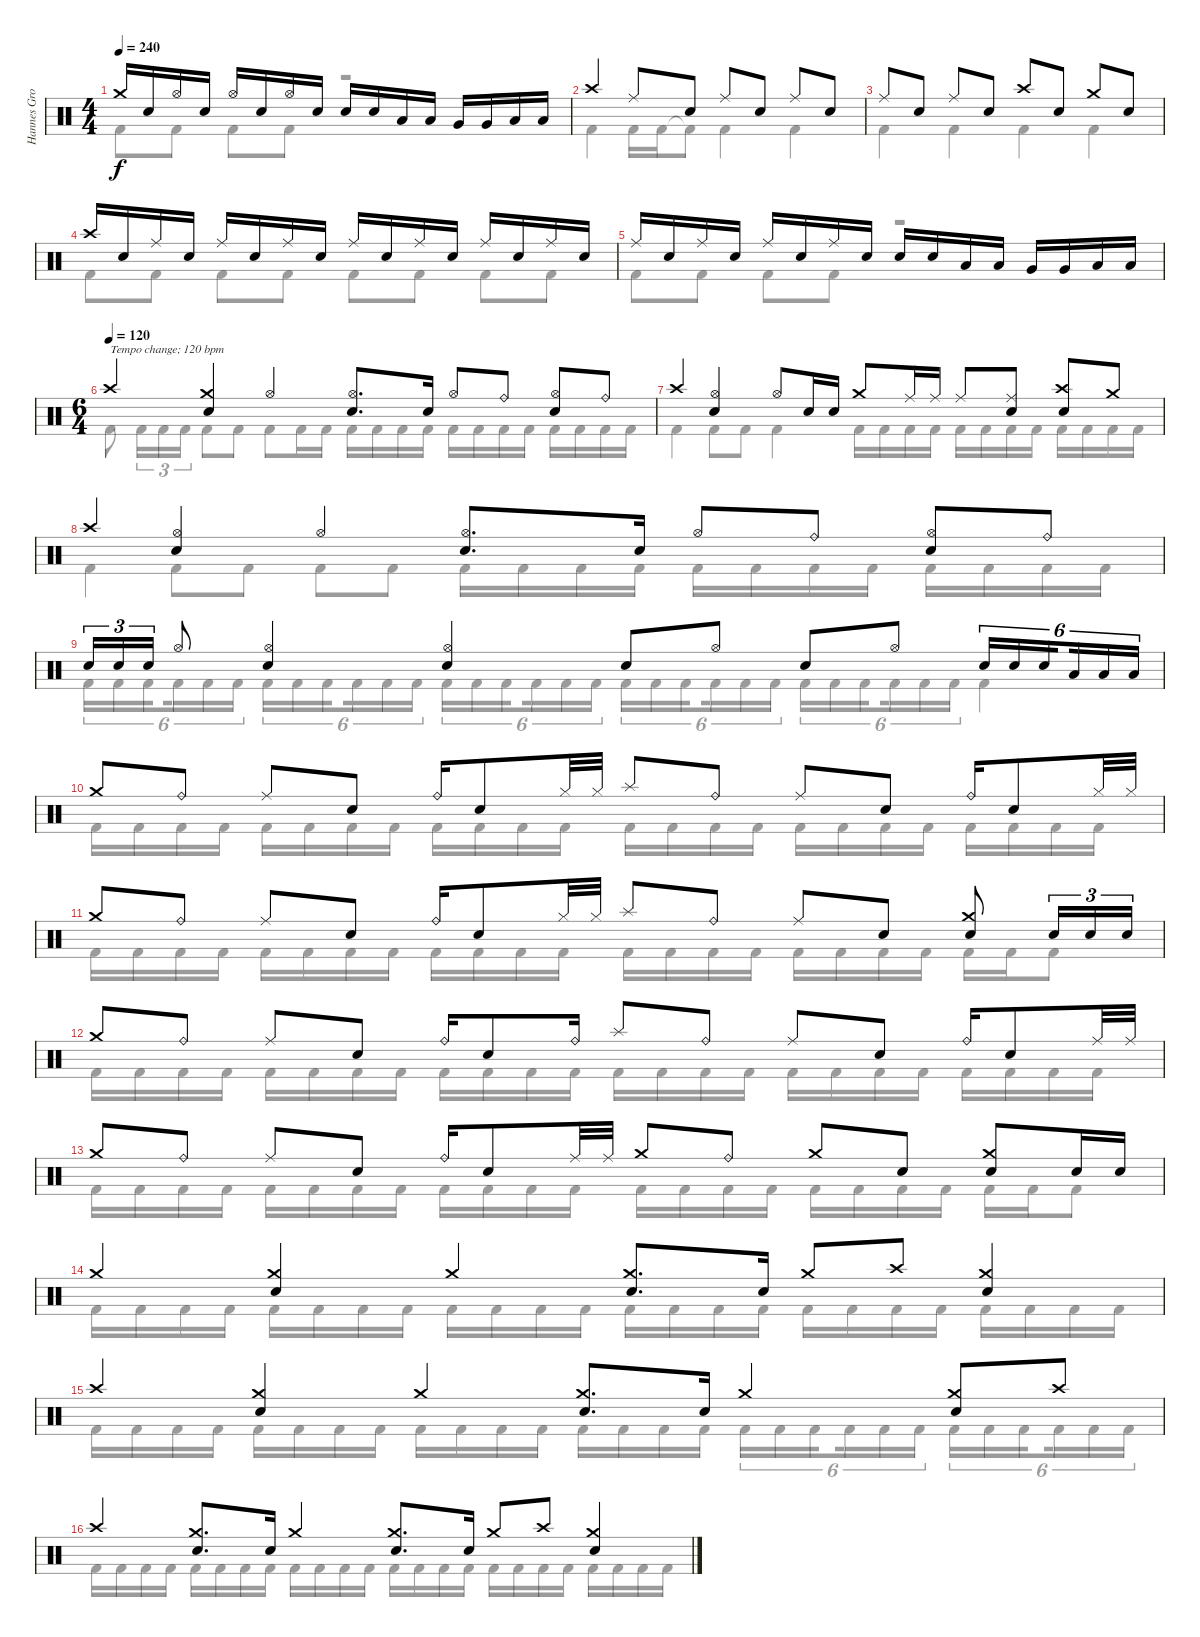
\track ("Hannes Grossmann - drums" "Hannes Gro") {instrument percussion}
\staff {score}
\articulation defaults
\voice
\ts (4 4)
\tempo 240
\clef neutral
\ks c "Crash medium (hit)".16{dy f} "Electric Snare (hit)".16 "Hi-Hat (open)".16 "Electric Snare (hit)".16 "Hi-Hat (open)".16 "Electric Snare (hit)".16 "Hi-Hat (open)".16 "Electric Snare (hit)".16 "Electric Snare (hit)".16 "Electric Snare (hit)".16 "Low Tom (hit)".16 "Low Tom (hit)".16 "Very Low Tom (hit)".16 "Very Low Tom (hit)".16 "Low Floor Tom (hit)".16 "Low Floor Tom (hit)".16
|
"Crash high (hit)".4 "Ride (middle)".8 "Electric Snare (hit)".8 "Ride (middle)".8 "Electric Snare (hit)".8 "Ride (middle)".8 "Electric Snare (hit)".8 |
"Ride (middle)".8 "Electric Snare (hit)".8 "Ride (middle)".8 "Electric Snare (hit)".8 "Crash high (hit)".8 "Electric Snare (hit)".8 "Crash medium (hit)".8 "Electric Snare (hit)".8 |
"Crash high (hit)".16 "Electric Snare (hit)".16 "Ride (middle)".16 "Electric Snare (hit)".16 "Ride (middle)".16 "Electric Snare (hit)".16 "Ride (middle)".16 "Electric Snare (hit)".16 "Ride (middle)".16 "Electric Snare (hit)".16 "Ride (middle)".16 "Electric Snare (hit)".16 "Ride (middle)".16 "Electric Snare (hit)".16 "Ride (middle)".16 "Electric Snare (hit)".16 |
"Ride (middle)".16 "Electric Snare (hit)".16 "Ride (middle)".16 "Electric Snare (hit)".16 "Ride (middle)".16 "Electric Snare (hit)".16 "Ride (middle)".16 "Electric Snare (hit)".16 "Electric Snare (hit)".16 "Electric Snare (hit)".16 "Low Tom (hit)".16 "Low Tom (hit)".16 "Very Low Tom (hit)".16 "Very Low Tom (hit)".16 "Low Floor Tom (hit)".16 "Low Floor Tom (hit)".16 |
\ts (6 4)
\tempo (120)
"Crash high (hit)".4{txt "Tempo change; 120 bpm"} ("Crash medium (hit)" "Electric Snare (hit)").4 "Hi-Hat (open)".4 ("Hi-Hat (open)" "Electric Snare (hit)").8{d} "Electric Snare (hit)".16 "Hi-Hat (open)".8 "Ride (bell)".8 ("Hi-Hat (open)" "Electric Snare (hit)").8 "Ride (bell)".8 |
"Crash high (hit)".4 ("Hi-Hat (open)" "Electric Snare (hit)").4 "Hi-Hat (open)".8 "Electric Snare (hit)".16 "Electric Snare (hit)".16 "Crash medium (hit)".8 "Ride (middle)".16 "Ride (middle)".16 "Ride (middle)".8 ("Ride (middle)" "Electric Snare (hit)").8 ("Crash high (hit)" "Electric Snare (hit)").8 "Crash medium (hit)".8 |
"Crash high (hit)".4 ("Hi-Hat (open)" "Electric Snare (hit)").4 "Hi-Hat (open)".4 ("Hi-Hat (open)" "Electric Snare (hit)").8{d} "Electric Snare (hit)".16 "Hi-Hat (open)".8 "Ride (bell)".8 ("Hi-Hat (open)" "Electric Snare (hit)").8 "Ride (bell)".8 |
"Electric Snare (hit)".16{tu (3 2)} "Electric Snare (hit)".16{tu (3 2)} "Electric Snare (hit)".16{tu (3 2)} "Hi-Hat (open)".8 ("Hi-Hat (open)" "Electric Snare (hit)").4 ("Hi-Hat (open)" "Electric Snare (hit)").4 "Electric Snare (hit)".8 "Hi-Hat (open)".8 "Electric Snare (hit)".8 "Hi-Hat (open)".8 "Electric Snare (hit)".16{tu (6 4)} "Electric Snare (hit)".16{tu (6 4)} "Electric Snare (hit)".16{tu (6 4) beam splitsecondary} "Low Tom (hit)".16{tu (6 4)} "Low Tom (hit)".16{tu (6 4)} "Low Tom (hit)".16{tu (6 4)} |
"Crash medium (hit)".8 "Ride (bell)".8 "Ride (middle)".8 "Electric Snare (hit)".8 "Ride (bell)".16 "Electric Snare (hit)".8 "Hi-Hat (closed)".32 "Hi-Hat (closed)".32 "Splash (hit)".8 "Ride (bell)".8 "Ride (middle)".8 "Electric Snare (hit)".8 "Ride (bell)".16 "Electric Snare (hit)".8 "Hi-Hat (closed)".32 "Hi-Hat (closed)".32 |
"Crash medium (hit)".8 "Ride (bell)".8 "Ride (middle)".8 "Electric Snare (hit)".8 "Ride (bell)".16 "Electric Snare (hit)".8 "Hi-Hat (closed)".32 "Hi-Hat (closed)".32 "Splash (hit)".8 "Ride (bell)".8 "Ride (middle)".8 "Electric Snare (hit)".8 ("Crash medium (hit)" "Electric Snare (hit)").8 "Electric Snare (hit)".16{tu (3 2)} "Electric Snare (hit)".16{tu (3 2)} "Electric Snare (hit)".16{tu (3 2)} |
"Crash medium (hit)".8 "Ride (bell)".8 "Ride (middle)".8 "Electric Snare (hit)".8 "Ride (bell)".16 "Electric Snare (hit)".8 "Ride (bell)".16 "Splash (hit)".8 "Ride (bell)".8 "Ride (middle)".8 "Electric Snare (hit)".8 "Ride (bell)".16 "Electric Snare (hit)".8 "Ride (middle)".32 "Ride (middle)".32 |
"Crash medium (hit)".8 "Ride (bell)".8 "Ride (middle)".8 "Electric Snare (hit)".8 "Ride (bell)".16 "Electric Snare (hit)".8 "Ride (middle)".32 "Ride (middle)".32 "Crash medium (hit)".8 "Ride (bell)".8 "Crash medium (hit)".8 "Electric Snare (hit)".8 ("Crash medium (hit)" "Electric Snare (hit)").8 "Electric Snare (hit)".16 "Electric Snare (hit)".16 |
"Crash medium (hit)".4 ("Crash medium (hit)" "Electric Snare (hit)").4 "Crash medium (hit)".4 ("Crash medium (hit)" "Electric Snare (hit)").8{d} "Electric Snare (hit)".16 "Crash medium (hit)".8 "Crash high (hit)".8 ("Crash medium (hit)" "Electric Snare (hit)").4 |
"Crash high (hit)".4 ("Crash medium (hit)" "Electric Snare (hit)").4 "Crash medium (hit)".4 ("Crash medium (hit)" "Electric Snare (hit)").8{d} "Electric Snare (hit)".16 "Crash medium (hit)".4 ("Crash medium (hit)" "Electric Snare (hit)").8 "Crash high (hit)".8 |
"Crash high (hit)".4 ("Crash medium (hit)" "Electric Snare (hit)").8{d} "Electric Snare (hit)".16 "Crash medium (hit)".4 ("Crash medium (hit)" "Electric Snare (hit)").8{d} "Electric Snare (hit)".16 "Crash medium (hit)".8 "Crash high (hit)".8 ("Crash medium (hit)" "Electric Snare (hit)").4
\voice
\clef neutral
\ottava regular
\simile none
\ks c "Kick (hit) 2".8{dy f} "Kick (hit) 2".8 "Kick (hit) 2".8 "Kick (hit) 2".8
r.2 |
"Kick (hit) 2".4 "Kick (hit) 2".16 "Kick (hit) 2".16 "Kick (hit) 2"{t}.8 "Kick (hit) 2".4 "Kick (hit) 2".4 |
"Kick (hit) 2".4 "Kick (hit) 2".4 "Kick (hit) 2".4 "Kick (hit) 2".4 |
"Kick (hit) 2".8 "Kick (hit) 2".8 "Kick (hit) 2".8 "Kick (hit) 2".8 "Kick (hit) 2".8 "Kick (hit) 2".8 "Kick (hit) 2".8 "Kick (hit) 2".8 |
"Kick (hit) 2".8 "Kick (hit) 2".8 "Kick (hit) 2".8 "Kick (hit) 2".8 r.2 |
"Kick (hit) 2".8 "Kick (hit) 2".16{tu (3 2)} "Kick (hit) 2".16{tu (3 2)} "Kick (hit) 2".16{tu (3 2)} "Kick (hit) 2".8 "Kick (hit) 2".8 "Kick (hit) 2".8 "Kick (hit) 2".16 "Kick (hit) 2".16 "Kick (hit) 2".16 "Kick (hit) 2".16 "Kick (hit) 2".16 "Kick (hit) 2".16 "Kick (hit) 2".16 "Kick (hit) 2".16 "Kick (hit) 2".16 "Kick (hit) 2".16 "Kick (hit) 2".16 "Kick (hit) 2".16 "Kick (hit) 2".16 "Kick (hit) 2".16 |
"Kick (hit) 2".4 "Kick (hit) 2".8 "Kick (hit) 2".8 "Kick (hit) 2".4 "Kick (hit) 2".16 "Kick (hit) 2".16 "Kick (hit) 2".16 "Kick (hit) 2".16 "Kick (hit) 2".16 "Kick (hit) 2".16 "Kick (hit) 2".16 "Kick (hit) 2".16 "Kick (hit) 2".16 "Kick (hit) 2".16 "Kick (hit) 2".16 "Kick (hit) 2".16 |
"Kick (hit) 2".4 "Kick (hit) 2".8 "Kick (hit) 2".8 "Kick (hit) 2".8 "Kick (hit) 2".8 "Kick (hit) 2".16 "Kick (hit) 2".16 "Kick (hit) 2".16 "Kick (hit) 2".16 "Kick (hit) 2".16 "Kick (hit) 2".16 "Kick (hit) 2".16 "Kick (hit) 2".16 "Kick (hit) 2".16 "Kick (hit) 2".16 "Kick (hit) 2".16 "Kick (hit) 2".16 |
"Kick (hit) 2".16{tu (6 4)} "Kick (hit) 2".16{tu (6 4)} "Kick (hit) 2".16{tu (6 4) beam splitsecondary} "Kick (hit) 2".16{tu (6 4)} "Kick (hit) 2".16{tu (6 4)} "Kick (hit) 2".16{tu (6 4) beam splitsecondary} "Kick (hit) 2".16{tu (6 4)} "Kick (hit) 2".16{tu (6 4)} "Kick (hit) 2".16{tu (6 4) beam splitsecondary} "Kick (hit) 2".16{tu (6 4)} "Kick (hit) 2".16{tu (6 4)} "Kick (hit) 2".16{tu (6 4) beam splitsecondary} "Kick (hit) 2".16{tu (6 4)} "Kick (hit) 2".16{tu (6 4)} "Kick (hit) 2".16{tu (6 4) beam splitsecondary} "Kick (hit) 2".16{tu (6 4)} "Kick (hit) 2".16{tu (6 4)} "Kick (hit) 2".16{tu (6 4)} "Kick (hit) 2".16{tu (6 4)} "Kick (hit) 2".16{tu (6 4)} "Kick (hit) 2".16{tu (6 4) beam splitsecondary} "Kick (hit) 2".16{tu (6 4)} "Kick (hit) 2".16{tu (6 4)} "Kick (hit) 2".16{tu (6 4) beam splitsecondary} "Kick (hit) 2".16{tu (6 4)} "Kick (hit) 2".16{tu (6 4)} "Kick (hit) 2".16{tu (6 4) beam splitsecondary} "Kick (hit) 2".16{tu (6 4)} "Kick (hit) 2".16{tu (6 4)} "Kick (hit) 2".16{tu (6 4)} "Kick (hit) 2".4 |
"Kick (hit) 2".16 "Kick (hit) 2".16 "Kick (hit) 2".16 "Kick (hit) 2".16 "Kick (hit) 2".16 "Kick (hit) 2".16 "Kick (hit) 2".16 "Kick (hit) 2".16 "Kick (hit) 2".16 "Kick (hit) 2".16 "Kick (hit) 2".16 "Kick (hit) 2".16 "Kick (hit) 2".16 "Kick (hit) 2".16 "Kick (hit) 2".16 "Kick (hit) 2".16 "Kick (hit) 2".16 "Kick (hit) 2".16 "Kick (hit) 2".16 "Kick (hit) 2".16 "Kick (hit) 2".16 "Kick (hit) 2".16 "Kick (hit) 2".16 "Kick (hit) 2".16 |
"Kick (hit) 2".16 "Kick (hit) 2".16 "Kick (hit) 2".16 "Kick (hit) 2".16 "Kick (hit) 2".16 "Kick (hit) 2".16 "Kick (hit) 2".16 "Kick (hit) 2".16 "Kick (hit) 2".16 "Kick (hit) 2".16 "Kick (hit) 2".16 "Kick (hit) 2".16 "Kick (hit) 2".16 "Kick (hit) 2".16 "Kick (hit) 2".16 "Kick (hit) 2".16 "Kick (hit) 2".16 "Kick (hit) 2".16 "Kick (hit) 2".16 "Kick (hit) 2".16 "Kick (hit) 2".16 "Kick (hit) 2".16 "Kick (hit) 2".8 |
"Kick (hit) 2".16 "Kick (hit) 2".16 "Kick (hit) 2".16 "Kick (hit) 2".16 "Kick (hit) 2".16 "Kick (hit) 2".16 "Kick (hit) 2".16 "Kick (hit) 2".16 "Kick (hit) 2".16 "Kick (hit) 2".16 "Kick (hit) 2".16 "Kick (hit) 2".16 "Kick (hit) 2".16 "Kick (hit) 2".16 "Kick (hit) 2".16 "Kick (hit) 2".16 "Kick (hit) 2".16 "Kick (hit) 2".16 "Kick (hit) 2".16 "Kick (hit) 2".16 "Kick (hit) 2".16 "Kick (hit) 2".16 "Kick (hit) 2".16 "Kick (hit) 2".16 |
"Kick (hit) 2".16 "Kick (hit) 2".16 "Kick (hit) 2".16 "Kick (hit) 2".16 "Kick (hit) 2".16 "Kick (hit) 2".16 "Kick (hit) 2".16 "Kick (hit) 2".16 "Kick (hit) 2".16 "Kick (hit) 2".16 "Kick (hit) 2".16 "Kick (hit) 2".16 "Kick (hit) 2".16 "Kick (hit) 2".16 "Kick (hit) 2".16 "Kick (hit) 2".16 "Kick (hit) 2".16 "Kick (hit) 2".16 "Kick (hit) 2".16 "Kick (hit) 2".16 "Kick (hit) 2".16 "Kick (hit) 2".16 "Kick (hit) 2".8 |
"Kick (hit) 2".16 "Kick (hit) 2".16 "Kick (hit) 2".16 "Kick (hit) 2".16 "Kick (hit) 2".16 "Kick (hit) 2".16 "Kick (hit) 2".16 "Kick (hit) 2".16 "Kick (hit) 2".16 "Kick (hit) 2".16 "Kick (hit) 2".16 "Kick (hit) 2".16 "Kick (hit) 2".16 "Kick (hit) 2".16 "Kick (hit) 2".16 "Kick (hit) 2".16 "Kick (hit) 2".16 "Kick (hit) 2".16 "Kick (hit) 2".16 "Kick (hit) 2".16 "Kick (hit) 2".16 "Kick (hit) 2".16 "Kick (hit) 2".16 "Kick (hit) 2".16 |
"Kick (hit) 2".16 "Kick (hit) 2".16 "Kick (hit) 2".16 "Kick (hit) 2".16 "Kick (hit) 2".16 "Kick (hit) 2".16 "Kick (hit) 2".16 "Kick (hit) 2".16 "Kick (hit) 2".16 "Kick (hit) 2".16 "Kick (hit) 2".16 "Kick (hit) 2".16 "Kick (hit) 2".16 "Kick (hit) 2".16 "Kick (hit) 2".16 "Kick (hit) 2".16{beam splitsecondary} "Kick (hit) 2".16{tu (6 4)} "Kick (hit) 2".16{tu (6 4)} "Kick (hit) 2".16{tu (6 4) beam splitsecondary} "Kick (hit) 2".16{tu (6 4)} "Kick (hit) 2".16{tu (6 4)} "Kick (hit) 2".16{tu (6 4) beam splitsecondary} "Kick (hit) 2".16{tu (6 4)} "Kick (hit) 2".16{tu (6 4)} "Kick (hit) 2".16{tu (6 4) beam splitsecondary} "Kick (hit) 2".16{tu (6 4)} "Kick (hit) 2".16{tu (6 4)} "Kick (hit) 2".16{tu (6 4)} |
"Kick (hit) 2".16 "Kick (hit) 2".16 "Kick (hit) 2".16 "Kick (hit) 2".16 "Kick (hit) 2".16 "Kick (hit) 2".16 "Kick (hit) 2".16 "Kick (hit) 2".16 "Kick (hit) 2".16 "Kick (hit) 2".16 "Kick (hit) 2".16 "Kick (hit) 2".16 "Kick (hit) 2".16 "Kick (hit) 2".16 "Kick (hit) 2".16 "Kick (hit) 2".16 "Kick (hit) 2".16 "Kick (hit) 2".16 "Kick (hit) 2".16 "Kick (hit) 2".16 "Kick (hit) 2".16 "Kick (hit) 2".16 "Kick (hit) 2".16 "Kick (hit) 2".16
